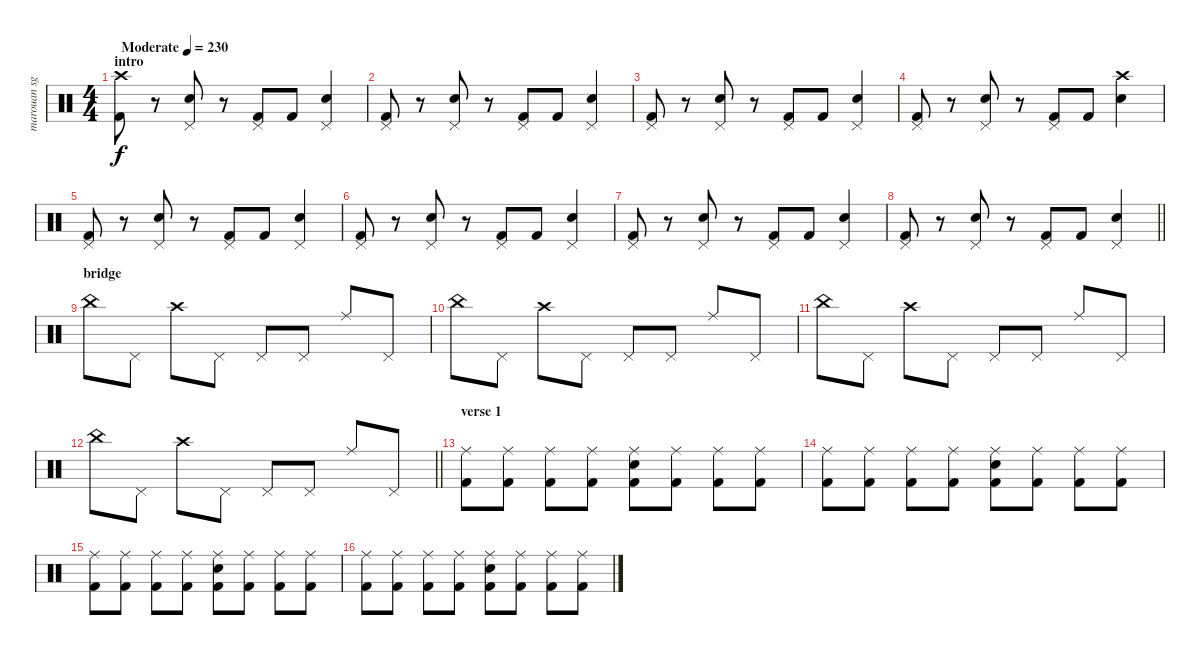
\track ("marouan sghir" "marouan sg") {instrument percussion}
\staff {score}
\articulation defaults
\ts (4 4)
\section ("" "intro")
\tempo (230 "Moderate")
\clef neutral
\ks c
("Crash high (hit)" "Kick (hit) 2").8{dy f} r.8 ("Pedal Hi-Hat (hit)" "Electric Snare (hit)").8 r.8 ("Pedal Hi-Hat (hit)" "Kick (hit) 2").8 "Kick (hit) 2".8 ("Pedal Hi-Hat (hit)" "Electric Snare (hit)").4 |
("Pedal Hi-Hat (hit)" "Kick (hit) 2").8 r.8 ("Pedal Hi-Hat (hit)" "Electric Snare (hit)").8 r.8 ("Pedal Hi-Hat (hit)" "Kick (hit) 2").8 "Kick (hit) 2".8 ("Pedal Hi-Hat (hit)" "Electric Snare (hit)").4 |
("Pedal Hi-Hat (hit)" "Kick (hit) 2").8 r.8 ("Pedal Hi-Hat (hit)" "Electric Snare (hit)").8 r.8 ("Pedal Hi-Hat (hit)" "Kick (hit) 2").8 "Kick (hit) 2".8 ("Pedal Hi-Hat (hit)" "Electric Snare (hit)").4 |
("Pedal Hi-Hat (hit)" "Kick (hit) 2").8 r.8 ("Pedal Hi-Hat (hit)" "Electric Snare (hit)").8 r.8 ("Pedal Hi-Hat (hit)" "Kick (hit) 2").8 "Kick (hit) 2".8 ("Crash high (hit)" "Electric Snare (hit)").4 |
("Pedal Hi-Hat (hit)" "Kick (hit) 2").8 r.8 ("Pedal Hi-Hat (hit)" "Electric Snare (hit)").8 r.8 ("Pedal Hi-Hat (hit)" "Kick (hit) 2").8 "Kick (hit) 2".8 ("Pedal Hi-Hat (hit)" "Electric Snare (hit)").4 |
("Pedal Hi-Hat (hit)" "Kick (hit) 2").8 r.8 ("Pedal Hi-Hat (hit)" "Electric Snare (hit)").8 r.8 ("Pedal Hi-Hat (hit)" "Kick (hit) 2").8 "Kick (hit) 2".8 ("Pedal Hi-Hat (hit)" "Electric Snare (hit)").4 |
("Pedal Hi-Hat (hit)" "Kick (hit) 2").8 r.8 ("Pedal Hi-Hat (hit)" "Electric Snare (hit)").8 r.8 ("Pedal Hi-Hat (hit)" "Kick (hit) 2").8 "Kick (hit) 2".8 ("Pedal Hi-Hat (hit)" "Electric Snare (hit)").4 |
\barLineRight lightlight
("Pedal Hi-Hat (hit)" "Kick (hit) 2").8 r.8 ("Pedal Hi-Hat (hit)" "Electric Snare (hit)").8 r.8 ("Pedal Hi-Hat (hit)" "Kick (hit) 2").8 "Kick (hit) 2".8 ("Pedal Hi-Hat (hit)" "Electric Snare (hit)").4 |
\section ("" "bridge")
"China (hit)".8 "Pedal Hi-Hat (hit)".8 "Crash high (hit)".8 "Pedal Hi-Hat (hit)".8 "Pedal Hi-Hat (hit)".8 "Pedal Hi-Hat (hit)".8 "Ride (middle)".8 "Pedal Hi-Hat (hit)".8 |
"China (hit)".8 "Pedal Hi-Hat (hit)".8 "Crash high (hit)".8 "Pedal Hi-Hat (hit)".8 "Pedal Hi-Hat (hit)".8 "Pedal Hi-Hat (hit)".8 "Ride (middle)".8 "Pedal Hi-Hat (hit)".8 |
"China (hit)".8 "Pedal Hi-Hat (hit)".8 "Crash high (hit)".8 "Pedal Hi-Hat (hit)".8 "Pedal Hi-Hat (hit)".8 "Pedal Hi-Hat (hit)".8 "Ride (middle)".8 "Pedal Hi-Hat (hit)".8 |
\barLineRight lightlight "China (hit)".8 "Pedal Hi-Hat (hit)".8 "Crash high (hit)".8 "Pedal Hi-Hat (hit)".8 "Pedal Hi-Hat (hit)".8 "Pedal Hi-Hat (hit)".8 "Ride (middle)".8 "Pedal Hi-Hat (hit)".8
|
\section ("" "verse 1")
("Ride (middle)" "Kick (hit) 2").8 ("Ride (middle)" "Kick (hit) 2").8 ("Ride (middle)" "Kick (hit) 2").8 ("Ride (middle)" "Kick (hit) 2").8 ("Ride (middle)" "Snare (hit) 2" "Kick (hit) 2").8 ("Ride (middle)" "Kick (hit) 2").8 ("Ride (middle)" "Kick (hit) 2").8 ("Ride (middle)" "Kick (hit) 2").8 |
("Ride (middle)" "Kick (hit) 2").8 ("Ride (middle)" "Kick (hit) 2").8 ("Ride (middle)" "Kick (hit) 2").8 ("Ride (middle)" "Kick (hit) 2").8 ("Ride (middle)" "Snare (hit) 2" "Kick (hit) 2").8 ("Ride (middle)" "Kick (hit) 2").8 ("Ride (middle)" "Kick (hit) 2").8 ("Ride (middle)" "Kick (hit) 2").8 |
("Ride (middle)" "Kick (hit) 2").8 ("Ride (middle)" "Kick (hit) 2").8 ("Ride (middle)" "Kick (hit) 2").8 ("Ride (middle)" "Kick (hit) 2").8 ("Ride (middle)" "Snare (hit) 2" "Kick (hit) 2").8 ("Ride (middle)" "Kick (hit) 2").8 ("Ride (middle)" "Kick (hit) 2").8 ("Ride (middle)" "Kick (hit) 2").8 |
("Ride (middle)" "Kick (hit) 2").8 ("Ride (middle)" "Kick (hit) 2").8 ("Ride (middle)" "Kick (hit) 2").8 ("Ride (middle)" "Kick (hit) 2").8 ("Ride (middle)" "Snare (hit) 2" "Kick (hit) 2").8 ("Ride (middle)" "Kick (hit) 2").8 ("Ride (middle)" "Kick (hit) 2").8 ("Ride (middle)" "Kick (hit) 2").8
